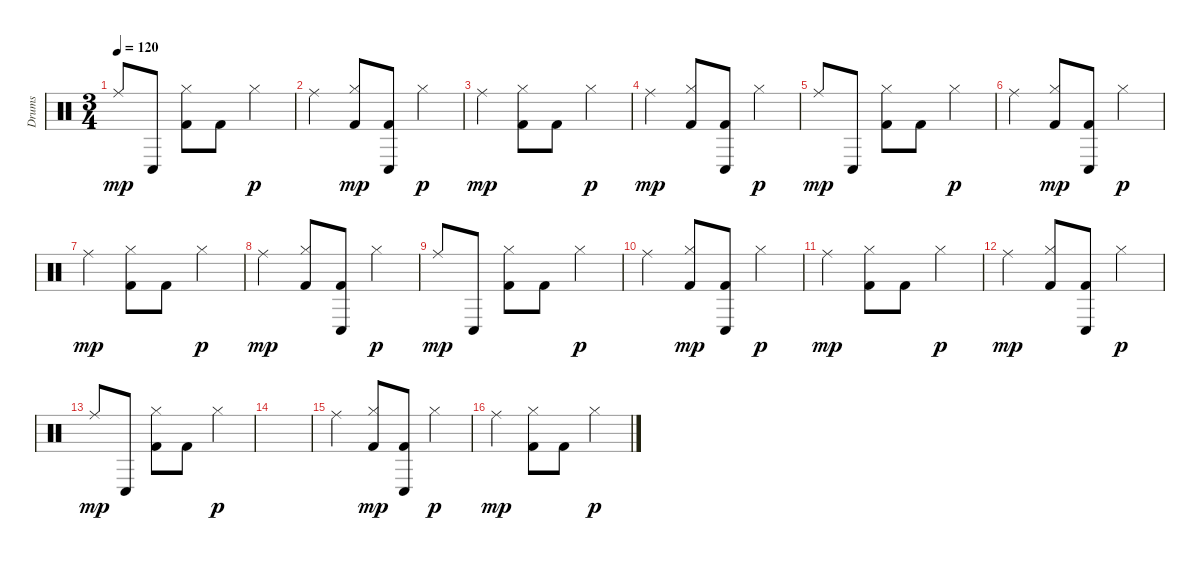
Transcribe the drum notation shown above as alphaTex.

\track ("Drums" "Drums") {instrument percussion}
\staff {score}
\articulation defaults
\ts (3 4)
\tempo 120
\clef neutral
\ks c "Ride (middle)".8{dy mp} "Conga low (hit)".8
("Hi-Hat (closed)" "Kick (hit) 2").8 "Kick (hit) 2".8 "Hi-Hat (closed)".4{dy p} |
"Ride (middle)".4 ("Hi-Hat (closed)" "Kick (hit) 2").8{dy mp} ("Kick (hit) 2" "Conga low (hit)").8 "Hi-Hat (closed)".4{dy p} |
"Ride (middle)".4{dy mp} ("Hi-Hat (closed)" "Kick (hit) 2").8 "Kick (hit) 2".8 "Hi-Hat (closed)".4{dy p} |
"Ride (middle)".4{dy mp} ("Hi-Hat (closed)" "Kick (hit) 2").8 ("Kick (hit) 2" "Conga low (hit)").8 "Hi-Hat (closed)".4{dy p} |
"Ride (middle)".8{dy mp} "Conga low (hit)".8 ("Hi-Hat (closed)" "Kick (hit) 2").8 "Kick (hit) 2".8 "Hi-Hat (closed)".4{dy p} |
"Ride (middle)".4 ("Hi-Hat (closed)" "Kick (hit) 2").8{dy mp} ("Kick (hit) 2" "Conga low (hit)").8 "Hi-Hat (closed)".4{dy p} |
"Ride (middle)".4{dy mp} ("Hi-Hat (closed)" "Kick (hit) 2").8 "Kick (hit) 2".8 "Hi-Hat (closed)".4{dy p} |
"Ride (middle)".4{dy mp} ("Hi-Hat (closed)" "Kick (hit) 2").8 ("Kick (hit) 2" "Conga low (hit)").8 "Hi-Hat (closed)".4{dy p} |
"Ride (middle)".8{dy mp} "Conga low (hit)".8 ("Hi-Hat (closed)" "Kick (hit) 2").8 "Kick (hit) 2".8 "Hi-Hat (closed)".4{dy p} |
"Ride (middle)".4 ("Hi-Hat (closed)" "Kick (hit) 2").8{dy mp} ("Kick (hit) 2" "Conga low (hit)").8 "Hi-Hat (closed)".4{dy p} |
"Ride (middle)".4{dy mp} ("Hi-Hat (closed)" "Kick (hit) 2").8 "Kick (hit) 2".8 "Hi-Hat (closed)".4{dy p} |
"Ride (middle)".4{dy mp} ("Hi-Hat (closed)" "Kick (hit) 2").8 ("Kick (hit) 2" "Conga low (hit)").8 "Hi-Hat (closed)".4{dy p} |
"Ride (middle)".8{dy mp} "Conga low (hit)".8 ("Hi-Hat (closed)" "Kick (hit) 2").8 "Kick (hit) 2".8 "Hi-Hat (closed)".4{dy p} |
|
"Ride (middle)".4 ("Hi-Hat (closed)" "Kick (hit) 2").8{dy mp} ("Kick (hit) 2" "Conga low (hit)").8 "Hi-Hat (closed)".4{dy p} |
"Ride (middle)".4{dy mp} ("Hi-Hat (closed)" "Kick (hit) 2").8 "Kick (hit) 2".8 "Hi-Hat (closed)".4{dy p}
